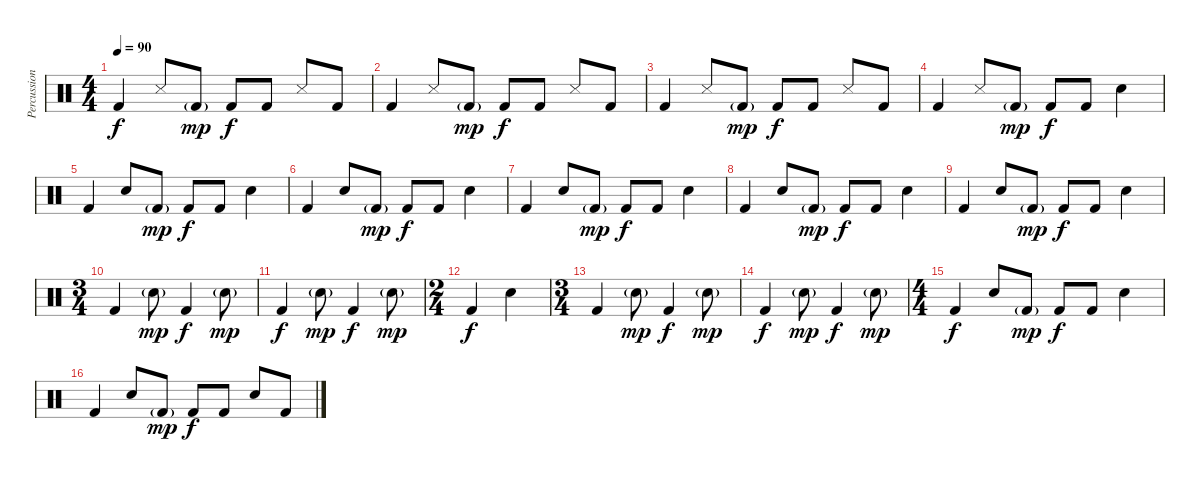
\track ("Percussion" "Percussion") {instrument percussion}
\staff {score}
\articulation defaults
\ts (4 4)
\tempo 90
\clef neutral
\ks c "Kick (hit) 2".4{dy f} "Snare (side stick) 3".8 "Kick (hit) 2"{g}.8{dy mp} "Kick (hit) 2".8{dy f} "Kick (hit) 2".8 "Snare (side stick) 3".8 "Kick (hit) 2".8
|
"Kick (hit) 2".4 "Snare (side stick) 3".8 "Kick (hit) 2"{g}.8{dy mp} "Kick (hit) 2".8{dy f} "Kick (hit) 2".8 "Snare (side stick) 3".8 "Kick (hit) 2".8 |
"Kick (hit) 2".4 "Snare (side stick) 3".8 "Kick (hit) 2"{g}.8{dy mp} "Kick (hit) 2".8{dy f} "Kick (hit) 2".8 "Snare (side stick) 3".8 "Kick (hit) 2".8 |
"Kick (hit) 2".4 "Snare (side stick) 3".8 "Kick (hit) 2"{g}.8{dy mp} "Kick (hit) 2".8{dy f} "Kick (hit) 2".8 "Snare (hit) 2".4 |
"Kick (hit) 2".4 "Snare (hit) 2".8 "Kick (hit) 2"{g}.8{dy mp} "Kick (hit) 2".8{dy f} "Kick (hit) 2".8 "Snare (hit) 2".4 |
"Kick (hit) 2".4 "Snare (hit) 2".8 "Kick (hit) 2"{g}.8{dy mp} "Kick (hit) 2".8{dy f} "Kick (hit) 2".8 "Snare (hit) 2".4 |
"Kick (hit) 2".4 "Snare (hit) 2".8 "Kick (hit) 2"{g}.8{dy mp} "Kick (hit) 2".8{dy f} "Kick (hit) 2".8 "Snare (hit) 2".4 |
"Kick (hit) 2".4 "Snare (hit) 2".8 "Kick (hit) 2"{g}.8{dy mp} "Kick (hit) 2".8{dy f} "Kick (hit) 2".8 "Snare (hit) 2".4 |
"Kick (hit) 2".4 "Snare (hit) 2".8 "Kick (hit) 2"{g}.8{dy mp} "Kick (hit) 2".8{dy f} "Kick (hit) 2".8 "Snare (hit) 2".4 |
\ts (3 4)
"Kick (hit) 2".4 "Snare (hit) 2"{g}.8{dy mp} "Kick (hit) 2".4{dy f} "Snare (hit) 2"{g}.8{dy mp} |
"Kick (hit) 2".4{dy f} "Snare (hit) 2"{g}.8{dy mp} "Kick (hit) 2".4{dy f} "Snare (hit) 2"{g}.8{dy mp} |
\ts (2 4)
"Kick (hit) 2".4{dy f} "Snare (hit) 2".4 |
\ts (3 4)
"Kick (hit) 2".4 "Snare (hit) 2"{g}.8{dy mp} "Kick (hit) 2".4{dy f} "Snare (hit) 2"{g}.8{dy mp} |
"Kick (hit) 2".4{dy f} "Snare (hit) 2"{g}.8{dy mp} "Kick (hit) 2".4{dy f} "Snare (hit) 2"{g}.8{dy mp} |
\ts (4 4)
"Kick (hit) 2".4{dy f} "Snare (hit) 2".8 "Kick (hit) 2"{g}.8{dy mp} "Kick (hit) 2".8{dy f} "Kick (hit) 2".8 "Snare (hit) 2".4 |
"Kick (hit) 2".4 "Snare (hit) 2".8 "Kick (hit) 2"{g}.8{dy mp} "Kick (hit) 2".8{dy f} "Kick (hit) 2".8 "Snare (hit) 2".8 "Kick (hit) 2".8
